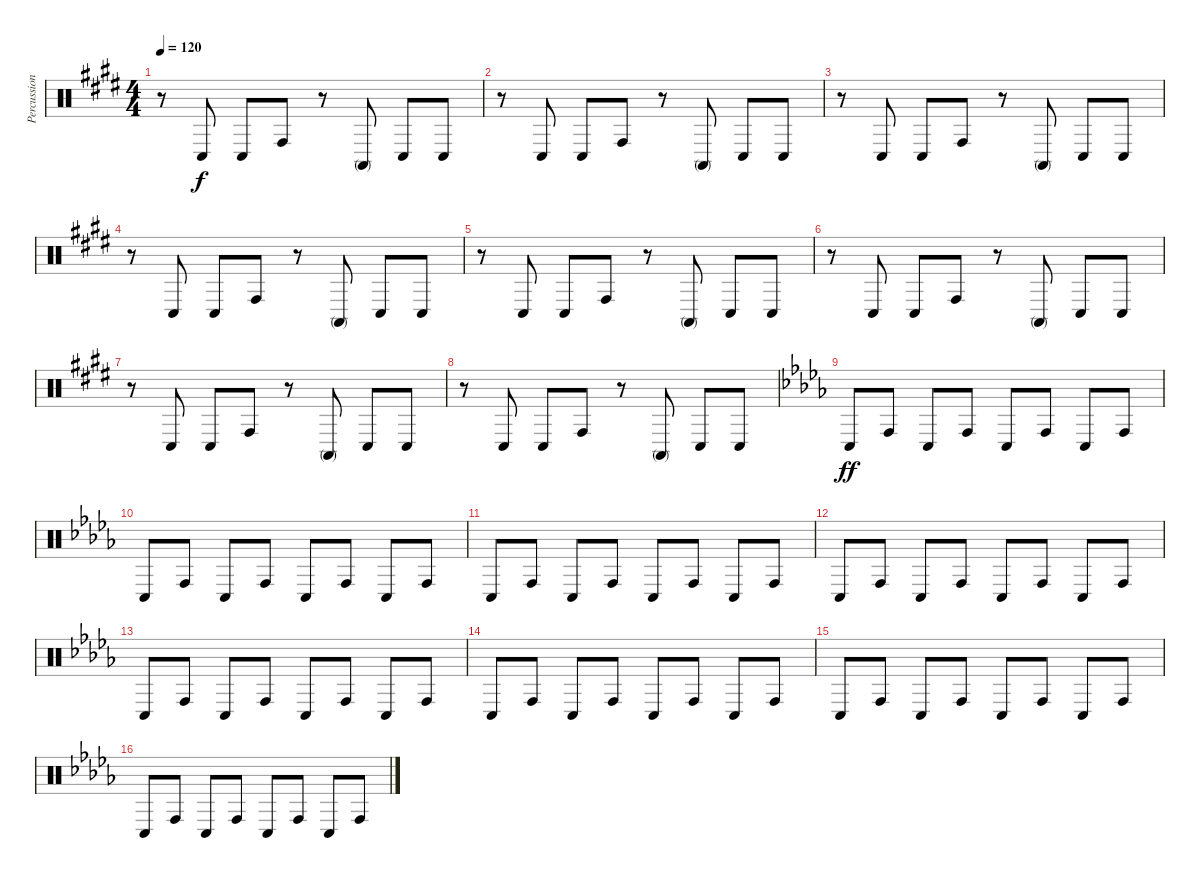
\track ("Percussion" "Percussion") {instrument percussion}
\staff {score}
\articulation defaults
\ts (4 4)
\tempo 120
\clef neutral
\ks e
r.8{dy f} "Conga low (hit)".8 "Conga low (hit)".8 "Conga high (hit)".8 r.8 "Conga high (mute)".8 "Conga low (hit)".8 "Conga low (hit)".8 |
r.8 "Conga low (hit)".8 "Conga low (hit)".8 "Conga high (hit)".8 r.8 "Conga high (mute)".8 "Conga low (hit)".8 "Conga low (hit)".8 |
r.8 "Conga low (hit)".8 "Conga low (hit)".8 "Conga high (hit)".8 r.8 "Conga high (mute)".8 "Conga low (hit)".8 "Conga low (hit)".8 |
r.8 "Conga low (hit)".8 "Conga low (hit)".8 "Conga high (hit)".8 r.8 "Conga high (mute)".8 "Conga low (hit)".8 "Conga low (hit)".8 |
r.8 "Conga low (hit)".8 "Conga low (hit)".8 "Conga high (hit)".8 r.8 "Conga high (mute)".8 "Conga low (hit)".8 "Conga low (hit)".8 |
r.8 "Conga low (hit)".8 "Conga low (hit)".8 "Conga high (hit)".8 r.8 "Conga high (mute)".8 "Conga low (hit)".8 "Conga low (hit)".8 |
r.8 "Conga low (hit)".8 "Conga low (hit)".8 "Conga high (hit)".8 r.8 "Conga high (mute)".8 "Conga low (hit)".8 "Conga low (hit)".8 |
r.8 "Conga low (hit)".8 "Conga low (hit)".8 "Conga high (hit)".8 r.8 "Conga high (mute)".8 "Conga low (hit)".8 "Conga low (hit)".8 |
\ks db "Conga low (hit)".8{dy ff} "Conga high (hit)".8 "Conga low (hit)".8 "Conga high (hit)".8 "Conga low (hit)".8 "Conga high (hit)".8 "Conga low (hit)".8 "Conga high (hit)".8
|
"Conga low (hit)".8 "Conga high (hit)".8 "Conga low (hit)".8 "Conga high (hit)".8 "Conga low (hit)".8 "Conga high (hit)".8 "Conga low (hit)".8 "Conga high (hit)".8 |
"Conga low (hit)".8 "Conga high (hit)".8 "Conga low (hit)".8 "Conga high (hit)".8 "Conga low (hit)".8 "Conga high (hit)".8 "Conga low (hit)".8 "Conga high (hit)".8 |
"Conga low (hit)".8 "Conga high (hit)".8 "Conga low (hit)".8 "Conga high (hit)".8 "Conga low (hit)".8 "Conga high (hit)".8 "Conga low (hit)".8 "Conga high (hit)".8 |
"Conga low (hit)".8 "Conga high (hit)".8 "Conga low (hit)".8 "Conga high (hit)".8 "Conga low (hit)".8 "Conga high (hit)".8 "Conga low (hit)".8 "Conga high (hit)".8 |
"Conga low (hit)".8 "Conga high (hit)".8 "Conga low (hit)".8 "Conga high (hit)".8 "Conga low (hit)".8 "Conga high (hit)".8 "Conga low (hit)".8 "Conga high (hit)".8 |
"Conga low (hit)".8 "Conga high (hit)".8 "Conga low (hit)".8 "Conga high (hit)".8 "Conga low (hit)".8 "Conga high (hit)".8 "Conga low (hit)".8 "Conga high (hit)".8 |
"Conga low (hit)".8 "Conga high (hit)".8 "Conga low (hit)".8 "Conga high (hit)".8 "Conga low (hit)".8 "Conga high (hit)".8 "Conga low (hit)".8 "Conga high (hit)".8
